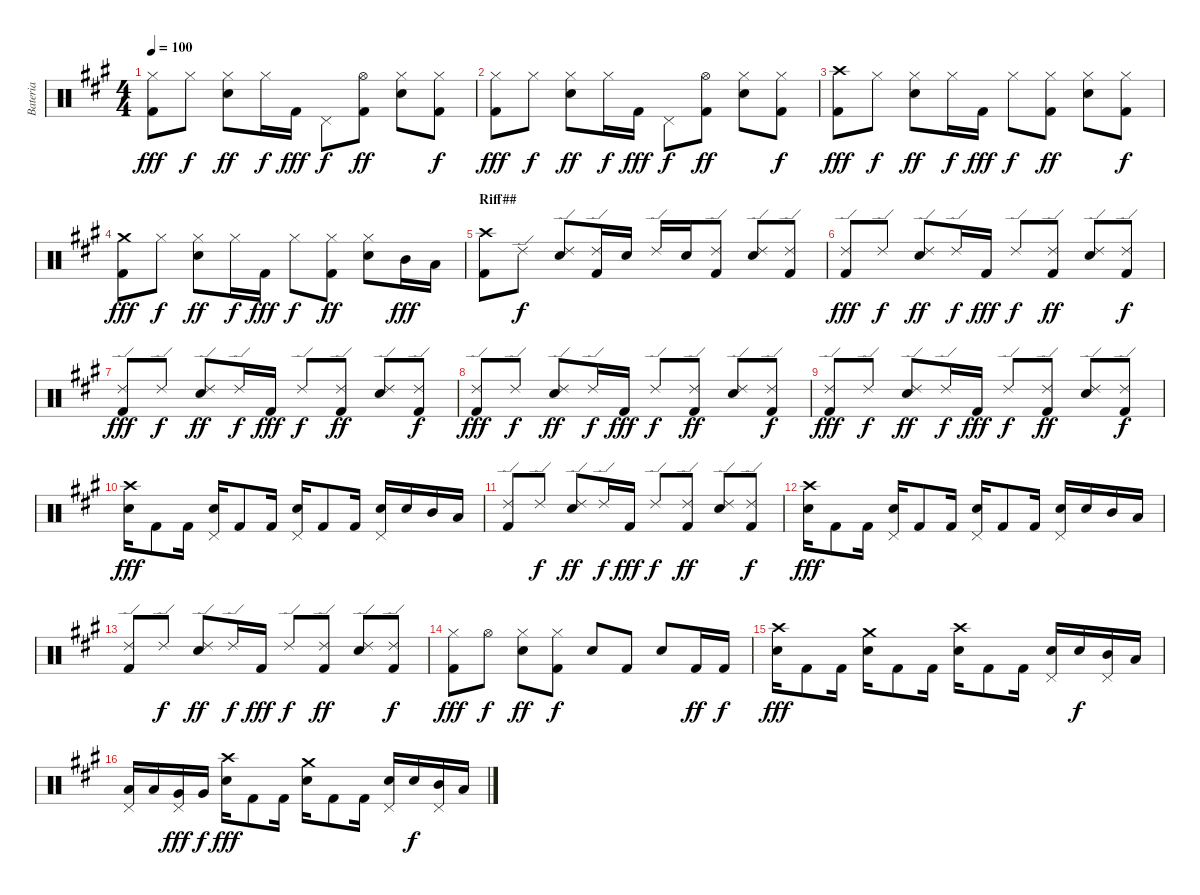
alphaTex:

\track ("Bateria" "Bateria") {instrument percussion}
\staff {score}
\articulation defaults
\ts (4 4)
\tempo 100
\clef neutral
\ks f#minor
("Hi-Hat (closed)" "Kick (hit) 2").8{dy fff} "Hi-Hat (closed)".8{dy f} ("Hi-Hat (closed)" "Electric Snare (hit)").8{dy ff} "Hi-Hat (closed)".16{dy f} "Kick (hit) 2".16{dy fff} "Pedal Hi-Hat (hit)".8{dy f} ("Hi-Hat (open)" "Kick (hit) 2").8{dy ff} ("Hi-Hat (closed)" "Electric Snare (hit)").8 ("Hi-Hat (closed)" "Kick (hit) 2").8{dy f} |
("Hi-Hat (closed)" "Kick (hit) 2").8{dy fff} "Hi-Hat (closed)".8{dy f} ("Hi-Hat (closed)" "Electric Snare (hit)").8{dy ff} "Hi-Hat (closed)".16{dy f} "Kick (hit) 2".16{dy fff} "Pedal Hi-Hat (hit)".8{dy f} ("Hi-Hat (open)" "Kick (hit) 2").8{dy ff} ("Hi-Hat (closed)" "Electric Snare (hit)").8 ("Hi-Hat (closed)" "Kick (hit) 2").8{dy f} |
("Crash high (hit)" "Kick (hit) 2").8{dy fff} "Hi-Hat (closed)".8{dy f} ("Hi-Hat (closed)" "Electric Snare (hit)").8{dy ff} "Hi-Hat (closed)".16{dy f} "Kick (hit) 2".16{dy fff} "Hi-Hat (closed)".8{dy f} ("Hi-Hat (closed)" "Kick (hit) 2").8{dy ff} ("Hi-Hat (closed)" "Electric Snare (hit)").8 ("Hi-Hat (closed)" "Kick (hit) 2").8{dy f} |
("Crash medium (hit)" "Kick (hit) 2").8{dy fff} "Hi-Hat (closed)".8{dy f} ("Hi-Hat (closed)" "Electric Snare (hit)").8{dy ff} "Hi-Hat (closed)".16{dy f} "Kick (hit) 2".16{dy fff} "Hi-Hat (closed)".8{dy f} ("Hi-Hat (closed)" "Kick (hit) 2").8{dy ff} ("Hi-Hat (closed)" "Electric Snare (hit)").8 "Mid Tom (hit)".16{dy fff} "Low Tom (hit)".16 |
\section ("" "Riff##")
("Crash high (hit)" "Kick (hit) 2").8 "Ride (edge) 2".8{dy f} ("Ride (edge) 2" "Electric Snare (hit)").8 ("Ride (edge) 2" "Kick (hit) 2").16 "Electric Snare (hit)".16 "Ride (edge) 2".16 "Electric Snare (hit)".16 ("Ride (edge) 2" "Kick (hit) 2").8 ("Ride (edge) 2" "Electric Snare (hit)").8 ("Ride (edge) 2" "Kick (hit) 2").8 |
("Ride (edge) 2" "Kick (hit) 2").8{dy fff} "Ride (edge) 2".8{dy f} ("Ride (edge) 2" "Electric Snare (hit)").8{dy ff} "Ride (edge) 2".16{dy f} "Kick (hit) 2".16{dy fff} "Ride (edge) 2".8{dy f} ("Ride (edge) 2" "Kick (hit) 2").8{dy ff} ("Ride (edge) 2" "Electric Snare (hit)").8 ("Ride (edge) 2" "Kick (hit) 2").8{dy f} |
("Ride (edge) 2" "Kick (hit) 2").8{dy fff} "Ride (edge) 2".8{dy f} ("Ride (edge) 2" "Electric Snare (hit)").8{dy ff} "Ride (edge) 2".16{dy f} "Kick (hit) 2".16{dy fff} "Ride (edge) 2".8{dy f} ("Ride (edge) 2" "Kick (hit) 2").8{dy ff} ("Ride (edge) 2" "Electric Snare (hit)").8 ("Ride (edge) 2" "Kick (hit) 2").8{dy f} |
("Ride (edge) 2" "Kick (hit) 2").8{dy fff} "Ride (edge) 2".8{dy f} ("Ride (edge) 2" "Electric Snare (hit)").8{dy ff} "Ride (edge) 2".16{dy f} "Kick (hit) 2".16{dy fff} "Ride (edge) 2".8{dy f} ("Ride (edge) 2" "Kick (hit) 2").8{dy ff} ("Ride (edge) 2" "Electric Snare (hit)").8 ("Ride (edge) 2" "Kick (hit) 2").8{dy f} |
("Ride (edge) 2" "Kick (hit) 2").8{dy fff} "Ride (edge) 2".8{dy f} ("Ride (edge) 2" "Electric Snare (hit)").8{dy ff} "Ride (edge) 2".16{dy f} "Kick (hit) 2".16{dy fff} "Ride (edge) 2".8{dy f} ("Ride (edge) 2" "Kick (hit) 2").8{dy ff} ("Ride (edge) 2" "Electric Snare (hit)").8 ("Ride (edge) 2" "Kick (hit) 2").8{dy f} |
("Crash high (hit)" "Electric Snare (hit)").16{dy fff} "Kick (hit) 2".8 "Kick (hit) 2".16 ("Pedal Hi-Hat (hit)" "Electric Snare (hit)").16 "Kick (hit) 2".8 "Kick (hit) 2".16 ("Pedal Hi-Hat (hit)" "Electric Snare (hit)").16 "Kick (hit) 2".8 "Kick (hit) 2".16 ("Pedal Hi-Hat (hit)" "Electric Snare (hit)").16 "Electric Snare (hit)".16 "Mid Tom (hit)".16 "Low Tom (hit)".16 |
("Ride (edge) 2" "Kick (hit) 2").8 "Ride (edge) 2".8{dy f} ("Ride (edge) 2" "Electric Snare (hit)").8{dy ff} "Ride (edge) 2".16{dy f} "Kick (hit) 2".16{dy fff} "Ride (edge) 2".8{dy f} ("Ride (edge) 2" "Kick (hit) 2").8{dy ff} ("Ride (edge) 2" "Electric Snare (hit)").8 ("Ride (edge) 2" "Kick (hit) 2").8{dy f} |
("Crash high (hit)" "Electric Snare (hit)").16{dy fff} "Kick (hit) 2".8 "Kick (hit) 2".16 ("Pedal Hi-Hat (hit)" "Electric Snare (hit)").16 "Kick (hit) 2".8 "Kick (hit) 2".16 ("Pedal Hi-Hat (hit)" "Electric Snare (hit)").16 "Kick (hit) 2".8 "Kick (hit) 2".16 ("Pedal Hi-Hat (hit)" "Electric Snare (hit)").16 "Electric Snare (hit)".16 "Mid Tom (hit)".16 "Low Tom (hit)".16 |
("Ride (edge) 2" "Kick (hit) 2").8 "Ride (edge) 2".8{dy f} ("Ride (edge) 2" "Electric Snare (hit)").8{dy ff} "Ride (edge) 2".16{dy f} "Kick (hit) 2".16{dy fff} "Ride (edge) 2".8{dy f} ("Ride (edge) 2" "Kick (hit) 2").8{dy ff} ("Ride (edge) 2" "Electric Snare (hit)").8 ("Ride (edge) 2" "Kick (hit) 2").8{dy f} |
("Hi-Hat (closed)" "Kick (hit) 2").8{dy fff} "Hi-Hat (open)".8{dy f} ("Hi-Hat (closed)" "Electric Snare (hit)").8{dy ff} ("Hi-Hat (closed)" "Kick (hit) 2").8{dy f} "Electric Snare (hit)".8 "Kick (hit) 2".8 "Electric Snare (hit)".8 "Kick (hit) 2".16{dy ff} "Kick (hit) 2".16{dy f} |
("Crash high (hit)" "Electric Snare (hit)").16{dy fff} "Kick (hit) 2".8 "Kick (hit) 2".16 ("Crash medium (hit)" "Electric Snare (hit)").16 "Kick (hit) 2".8 "Kick (hit) 2".16 ("Crash high (hit)" "Electric Snare (hit)").16 "Kick (hit) 2".8 "Kick (hit) 2".16 ("Pedal Hi-Hat (hit)" "Electric Snare (hit)").16 "Electric Snare (hit)".16{dy f} ("Pedal Hi-Hat (hit)" "Mid Tom (hit)").16 "Low Tom (hit)".16 |
("Pedal Hi-Hat (hit)" "Low Tom (hit)").16 "Low Tom (hit)".16 ("Pedal Hi-Hat (hit)" "Very Low Tom (hit)").16{dy fff} "Very Low Tom (hit)".16{dy f} ("Crash high (hit)" "Electric Snare (hit)").16{dy fff} "Kick (hit) 2".8 "Kick (hit) 2".16 ("Crash medium (hit)" "Electric Snare (hit)").16 "Kick (hit) 2".8 "Kick (hit) 2".16 ("Pedal Hi-Hat (hit)" "Electric Snare (hit)").16 "Electric Snare (hit)".16{dy f} ("Pedal Hi-Hat (hit)" "Mid Tom (hit)").16 "Low Tom (hit)".16
